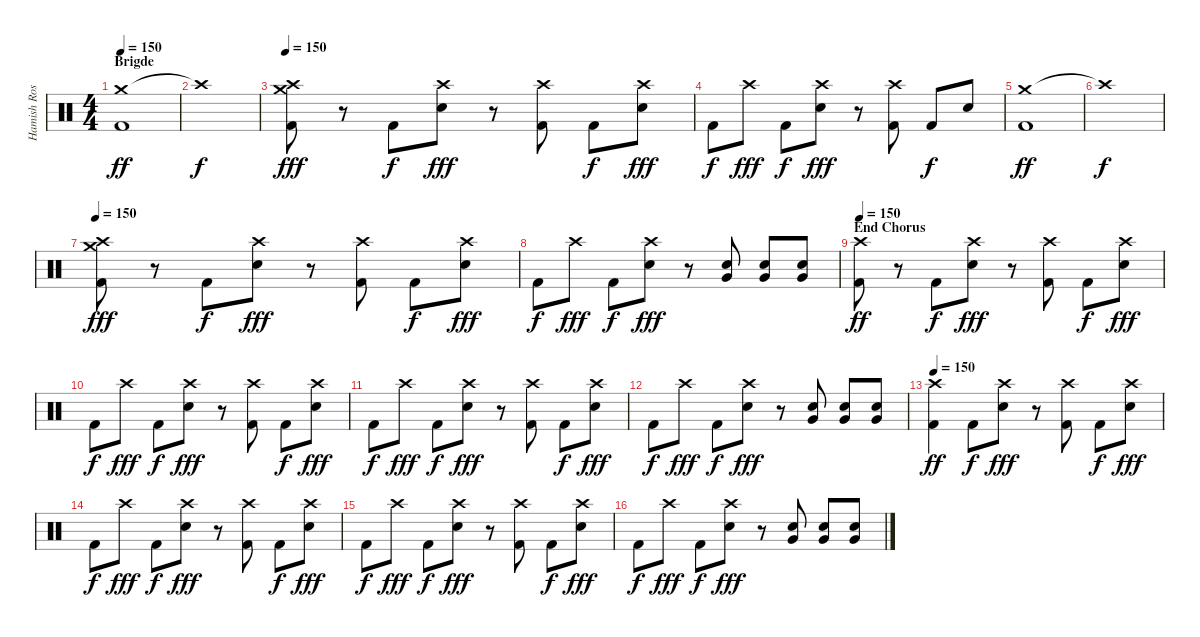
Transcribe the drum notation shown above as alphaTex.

\track ("Hamish Rosser" "Hamish Ros") {instrument percussion}
\staff {score}
\articulation defaults
\ts (4 4)
\section ("" "Brigde")
\tempo 150
\clef neutral
\ks c
("Crash medium (hit)" "Kick (hit) 2").1{dy ff} |
"Crash high (hit)"{t}.1{dy f} |
\tempo 150
("Crash high (hit)" "Crash medium (hit)" "Kick (hit) 2").8{dy fff} r.8 "Kick (hit) 2".8{dy f} ("Crash high (hit)" "Electric Snare (hit)").8{dy fff} r.8 ("Crash high (hit)" "Kick (hit) 2").8 "Kick (hit) 2".8{dy f} ("Crash high (hit)" "Electric Snare (hit)").8{dy fff} |
"Kick (hit) 2".8{dy f} "Crash high (hit)".8{dy fff} "Kick (hit) 2".8{dy f} ("Crash high (hit)" "Electric Snare (hit)").8{dy fff} r.8 ("Crash high (hit)" "Kick (hit) 2").8 "Kick (hit) 2".8{dy f} "Electric Snare (hit)".8 |
("Crash medium (hit)" "Kick (hit) 2").1{dy ff} |
"Crash high (hit)"{t}.1{dy f} |
\tempo 150
("Crash high (hit)" "Crash medium (hit)" "Kick (hit) 2").8{dy fff} r.8 "Kick (hit) 2".8{dy f} ("Crash high (hit)" "Electric Snare (hit)").8{dy fff} r.8 ("Crash high (hit)" "Kick (hit) 2").8 "Kick (hit) 2".8{dy f} ("Crash high (hit)" "Electric Snare (hit)").8{dy fff} |
"Kick (hit) 2".8{dy f} "Crash high (hit)".8{dy fff} "Kick (hit) 2".8{dy f} ("Crash high (hit)" "Electric Snare (hit)").8{dy fff} r.8 ("Electric Snare (hit)" "Very Low Tom (hit)").8 ("Electric Snare (hit)" "Very Low Tom (hit)").8 ("Electric Snare (hit)" "Very Low Tom (hit)").8 |
\section ("" "End Chorus ")
\tempo 150
("Crash high (hit)" "Kick (hit) 2").8{dy ff} r.8 "Kick (hit) 2".8{dy f} ("Crash high (hit)" "Electric Snare (hit)").8{dy fff} r.8 ("Crash high (hit)" "Kick (hit) 2").8 "Kick (hit) 2".8{dy f} ("Crash high (hit)" "Electric Snare (hit)").8{dy fff} |
"Kick (hit) 2".8{dy f} "Crash high (hit)".8{dy fff} "Kick (hit) 2".8{dy f} ("Crash high (hit)" "Electric Snare (hit)").8{dy fff} r.8 ("Crash high (hit)" "Kick (hit) 2").8 "Kick (hit) 2".8{dy f} ("Crash high (hit)" "Electric Snare (hit)").8{dy fff} |
"Kick (hit) 2".8{dy f} "Crash high (hit)".8{dy fff} "Kick (hit) 2".8{dy f} ("Crash high (hit)" "Electric Snare (hit)").8{dy fff} r.8 ("Crash high (hit)" "Kick (hit) 2").8 "Kick (hit) 2".8{dy f} ("Crash high (hit)" "Electric Snare (hit)").8{dy fff} |
"Kick (hit) 2".8{dy f} "Crash high (hit)".8{dy fff} "Kick (hit) 2".8{dy f} ("Crash high (hit)" "Electric Snare (hit)").8{dy fff} r.8 ("Electric Snare (hit)" "Very Low Tom (hit)").8 ("Electric Snare (hit)" "Very Low Tom (hit)").8 ("Electric Snare (hit)" "Very Low Tom (hit)").8 |
\tempo 150
("Crash high (hit)" "Kick (hit) 2").4{dy ff} "Kick (hit) 2".8{dy f} ("Crash high (hit)" "Electric Snare (hit)").8{dy fff} r.8 ("Crash high (hit)" "Kick (hit) 2").8 "Kick (hit) 2".8{dy f} ("Crash high (hit)" "Electric Snare (hit)").8{dy fff} |
"Kick (hit) 2".8{dy f} "Crash high (hit)".8{dy fff} "Kick (hit) 2".8{dy f} ("Crash high (hit)" "Electric Snare (hit)").8{dy fff} r.8 ("Crash high (hit)" "Kick (hit) 2").8 "Kick (hit) 2".8{dy f} ("Crash high (hit)" "Electric Snare (hit)").8{dy fff} |
"Kick (hit) 2".8{dy f} "Crash high (hit)".8{dy fff} "Kick (hit) 2".8{dy f} ("Crash high (hit)" "Electric Snare (hit)").8{dy fff} r.8 ("Crash high (hit)" "Kick (hit) 2").8 "Kick (hit) 2".8{dy f} ("Crash high (hit)" "Electric Snare (hit)").8{dy fff} |
"Kick (hit) 2".8{dy f} "Crash high (hit)".8{dy fff} "Kick (hit) 2".8{dy f} ("Crash high (hit)" "Electric Snare (hit)").8{dy fff} r.8 ("Electric Snare (hit)" "Very Low Tom (hit)").8 ("Electric Snare (hit)" "Very Low Tom (hit)").8 ("Electric Snare (hit)" "Very Low Tom (hit)").8
